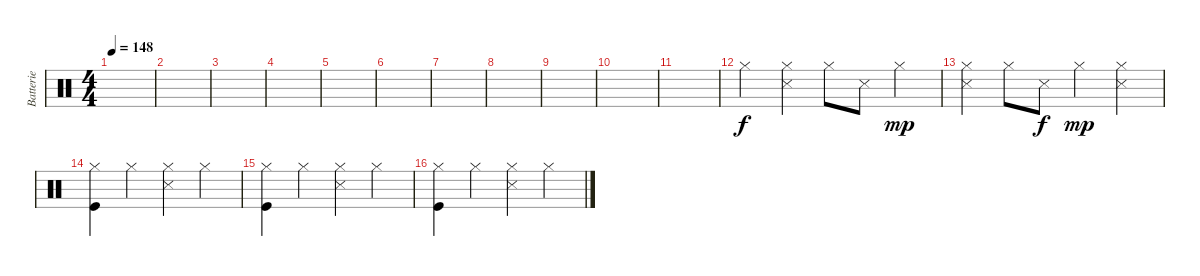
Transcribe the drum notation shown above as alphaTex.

\track ("Batterie" "Batterie") {instrument percussion}
\staff {score}
\articulation defaults
\ts (4 4)
\tempo 148
\clef neutral
\ks c
|
|
|
|
|
|
|
|
|
|
|
"Hi-Hat (closed)".4 ("Hi-Hat (closed)" "Metronome (hit)").4 "Hi-Hat (closed)".8 "Metronome (hit)".8{dy f} "Hi-Hat (closed)".4{dy mp} |
("Hi-Hat (closed)" "Metronome (hit)").4 "Hi-Hat (closed)".8 "Metronome (hit)".8{dy f} "Hi-Hat (closed)".4{dy mp} ("Hi-Hat (closed)" "Metronome (hit)").4 |
("Hi-Hat (closed)" "Kick (hit)").4 "Hi-Hat (closed)".4 ("Hi-Hat (closed)" "Metronome (hit)").4 "Hi-Hat (closed)".4 |
("Hi-Hat (closed)" "Kick (hit)").4 "Hi-Hat (closed)".4 ("Hi-Hat (closed)" "Metronome (hit)").4 "Hi-Hat (closed)".4 |
("Hi-Hat (closed)" "Kick (hit)").4 "Hi-Hat (closed)".4 ("Hi-Hat (closed)" "Metronome (hit)").4 "Hi-Hat (closed)".4
